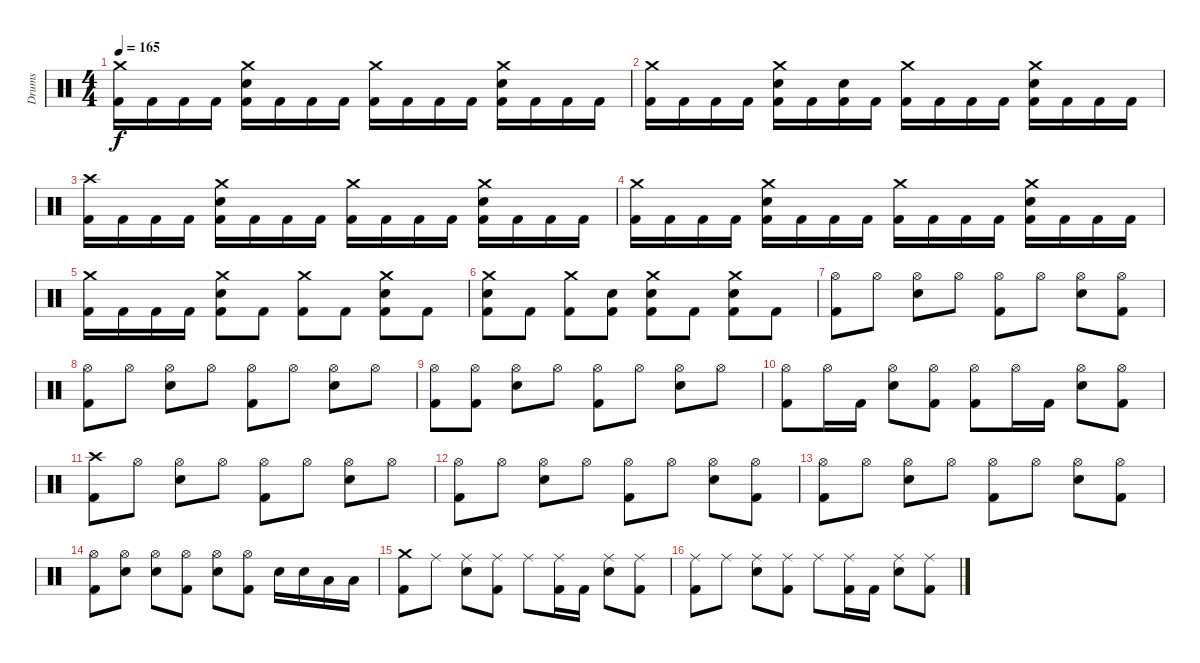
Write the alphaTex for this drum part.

\track ("Drums" "Drums") {instrument percussion}
\staff {score}
\articulation defaults
\ts (4 4)
\tempo 165
\clef neutral
\ks c
("Crash medium (hit)" "Kick (hit) 2").16{dy f} "Kick (hit) 2".16 "Kick (hit) 2".16 "Kick (hit) 2".16 ("Crash medium (hit)" "Electric Snare (hit)" "Kick (hit) 2").16 "Kick (hit) 2".16 "Kick (hit) 2".16 "Kick (hit) 2".16 ("Crash medium (hit)" "Kick (hit) 2").16 "Kick (hit) 2".16 "Kick (hit) 2".16 "Kick (hit) 2".16 ("Crash medium (hit)" "Electric Snare (hit)" "Kick (hit) 2").16 "Kick (hit) 2".16 "Kick (hit) 2".16 "Kick (hit) 2".16 |
("Crash medium (hit)" "Kick (hit) 2").16 "Kick (hit) 2".16 "Kick (hit) 2".16 "Kick (hit) 2".16 ("Crash medium (hit)" "Electric Snare (hit)" "Kick (hit) 2").16 "Kick (hit) 2".16 ("Electric Snare (hit)" "Kick (hit) 2").16 "Kick (hit) 2".16 ("Crash medium (hit)" "Kick (hit) 2").16 "Kick (hit) 2".16 "Kick (hit) 2".16 "Kick (hit) 2".16 ("Crash medium (hit)" "Electric Snare (hit)" "Kick (hit) 2").16 "Kick (hit) 2".16 "Kick (hit) 2".16 "Kick (hit) 2".16 |
("Crash high (hit)" "Kick (hit) 2").16 "Kick (hit) 2".16 "Kick (hit) 2".16 "Kick (hit) 2".16 ("Crash medium (hit)" "Electric Snare (hit)" "Kick (hit) 2").16 "Kick (hit) 2".16 "Kick (hit) 2".16 "Kick (hit) 2".16 ("Crash medium (hit)" "Kick (hit) 2").16 "Kick (hit) 2".16 "Kick (hit) 2".16 "Kick (hit) 2".16 ("Crash medium (hit)" "Electric Snare (hit)" "Kick (hit) 2").16 "Kick (hit) 2".16 "Kick (hit) 2".16 "Kick (hit) 2".16 |
("Crash medium (hit)" "Kick (hit) 2").16 "Kick (hit) 2".16 "Kick (hit) 2".16 "Kick (hit) 2".16 ("Crash medium (hit)" "Electric Snare (hit)" "Kick (hit) 2").16 "Kick (hit) 2".16 "Kick (hit) 2".16 "Kick (hit) 2".16 ("Crash medium (hit)" "Kick (hit) 2").16 "Kick (hit) 2".16 "Kick (hit) 2".16 "Kick (hit) 2".16 ("Crash medium (hit)" "Electric Snare (hit)" "Kick (hit) 2").16 "Kick (hit) 2".16 "Kick (hit) 2".16 "Kick (hit) 2".16 |
("Crash medium (hit)" "Kick (hit) 2").16 "Kick (hit) 2".16 "Kick (hit) 2".16 "Kick (hit) 2".16 ("Crash medium (hit)" "Electric Snare (hit)" "Kick (hit) 2").8 "Kick (hit) 2".8 ("Crash medium (hit)" "Kick (hit) 2").8 "Kick (hit) 2".8 ("Crash medium (hit)" "Electric Snare (hit)" "Kick (hit) 2").8 "Kick (hit) 2".8 |
("Crash medium (hit)" "Electric Snare (hit)" "Kick (hit) 2").8 "Kick (hit) 2".8 ("Crash medium (hit)" "Kick (hit) 2").8 ("Electric Snare (hit)" "Kick (hit) 2").8 ("Crash medium (hit)" "Electric Snare (hit)" "Kick (hit) 2").8 "Kick (hit) 2".8 ("Crash medium (hit)" "Electric Snare (hit)" "Kick (hit) 2").8 "Kick (hit) 2".8 |
("Hi-Hat (open)" "Kick (hit) 2").8 "Hi-Hat (open)".8 ("Hi-Hat (open)" "Electric Snare (hit)").8 "Hi-Hat (open)".8 ("Hi-Hat (open)" "Kick (hit) 2").8 "Hi-Hat (open)".8 ("Hi-Hat (open)" "Electric Snare (hit)").8 ("Hi-Hat (open)" "Kick (hit) 2").8 |
("Hi-Hat (open)" "Kick (hit) 2").8 "Hi-Hat (open)".8 ("Hi-Hat (open)" "Electric Snare (hit)").8 "Hi-Hat (open)".8 ("Hi-Hat (open)" "Kick (hit) 2").8 "Hi-Hat (open)".8 ("Hi-Hat (open)" "Electric Snare (hit)").8 "Hi-Hat (open)".8 |
("Hi-Hat (open)" "Kick (hit) 2").8 ("Hi-Hat (open)" "Kick (hit) 2").8 ("Hi-Hat (open)" "Electric Snare (hit)").8 "Hi-Hat (open)".8 ("Hi-Hat (open)" "Kick (hit) 2").8 "Hi-Hat (open)".8 ("Hi-Hat (open)" "Electric Snare (hit)").8 "Hi-Hat (open)".8 |
("Hi-Hat (open)" "Kick (hit) 2").8 "Hi-Hat (open)".16 "Kick (hit) 2".16 ("Hi-Hat (open)" "Electric Snare (hit)").8 ("Hi-Hat (open)" "Kick (hit) 2").8 ("Hi-Hat (open)" "Kick (hit) 2").8 "Hi-Hat (open)".16 "Kick (hit) 2".16 ("Hi-Hat (open)" "Electric Snare (hit)").8 ("Hi-Hat (open)" "Kick (hit) 2").8 |
("Crash high (hit)" "Kick (hit) 2").8 "Hi-Hat (open)".8 ("Hi-Hat (open)" "Electric Snare (hit)").8 "Hi-Hat (open)".8 ("Hi-Hat (open)" "Kick (hit) 2").8 "Hi-Hat (open)".8 ("Hi-Hat (open)" "Electric Snare (hit)").8 "Hi-Hat (open)".8 |
("Hi-Hat (open)" "Kick (hit) 2").8 "Hi-Hat (open)".8 ("Hi-Hat (open)" "Electric Snare (hit)").8 "Hi-Hat (open)".8 ("Hi-Hat (open)" "Kick (hit) 2").8 "Hi-Hat (open)".8 ("Hi-Hat (open)" "Electric Snare (hit)").8 ("Hi-Hat (open)" "Kick (hit) 2").8 |
("Hi-Hat (open)" "Kick (hit) 2").8 "Hi-Hat (open)".8 ("Hi-Hat (open)" "Electric Snare (hit)").8 "Hi-Hat (open)".8 ("Hi-Hat (open)" "Kick (hit) 2").8 "Hi-Hat (open)".8 ("Hi-Hat (open)" "Electric Snare (hit)").8 ("Hi-Hat (open)" "Kick (hit) 2").8 |
("Hi-Hat (open)" "Kick (hit) 2").8 ("Hi-Hat (open)" "Electric Snare (hit)").8 ("Hi-Hat (open)" "Electric Snare (hit)").8 ("Hi-Hat (open)" "Kick (hit) 2").8 ("Hi-Hat (open)" "Electric Snare (hit)").8 ("Hi-Hat (open)" "Kick (hit) 2").8 "Electric Snare (hit)".16 "Electric Snare (hit)".16 "Low Tom (hit)".16 "Low Tom (hit)".16 |
("Crash medium (hit)" "Kick (hit) 2").8 "Ride (middle)".8 ("Ride (middle)" "Electric Snare (hit)").8 ("Ride (middle)" "Kick (hit) 2").8 "Ride (middle)".8 ("Ride (middle)" "Kick (hit) 2").16 "Kick (hit) 2".16 ("Ride (middle)" "Electric Snare (hit)").8 ("Ride (middle)" "Kick (hit) 2").8 |
("Ride (middle)" "Kick (hit) 2").8 "Ride (middle)".8 ("Ride (middle)" "Electric Snare (hit)").8 ("Ride (middle)" "Kick (hit) 2").8 "Ride (middle)".8 ("Ride (middle)" "Kick (hit) 2").16 "Kick (hit) 2".16 ("Ride (middle)" "Electric Snare (hit)").8 ("Ride (middle)" "Kick (hit) 2").8
